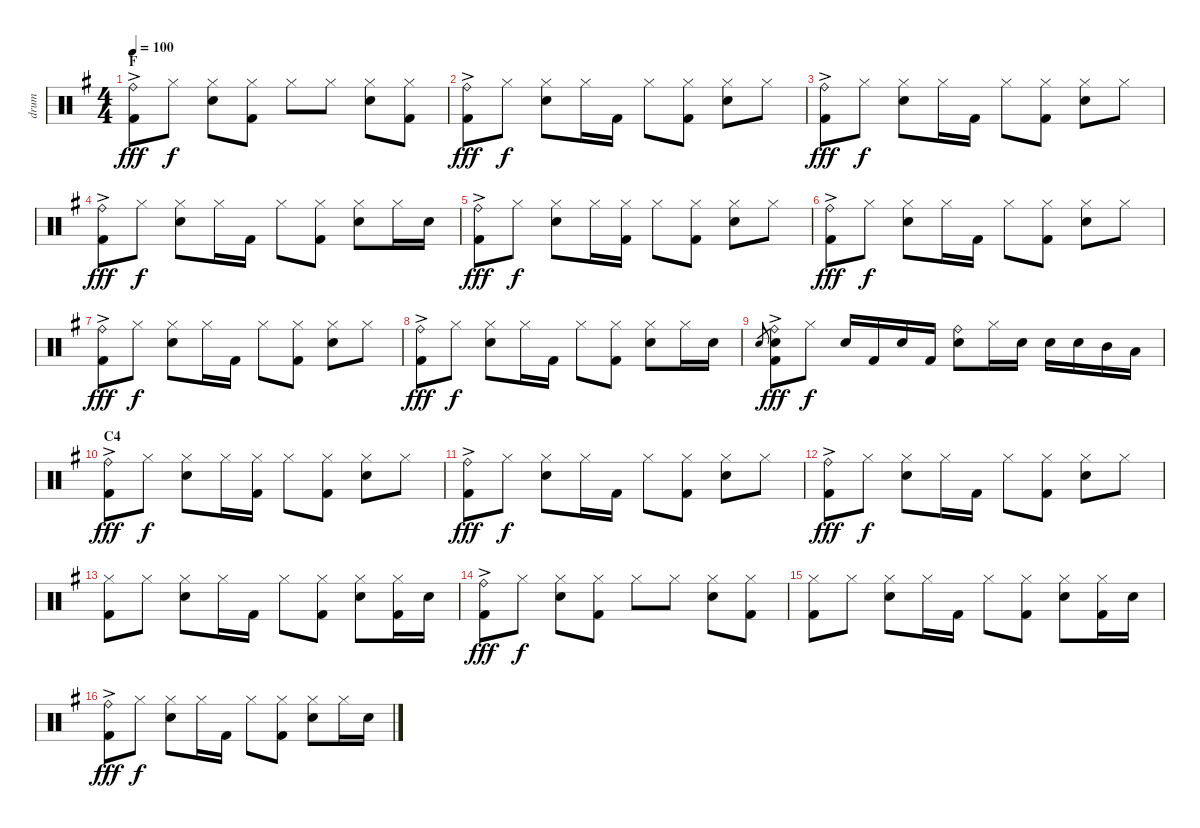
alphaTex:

\track ("drum" "drum") {instrument percussion}
\staff {score}
\articulation defaults
\ts (4 4)
\section ("" "F")
\tempo 100
\clef neutral
\ks g
("Ride (bell)"{ac} "Kick (hit) 2").8{dy fff} "Hi-Hat (closed)".8{dy f} ("Hi-Hat (closed)" "Snare (hit) 2").8 ("Hi-Hat (closed)" "Kick (hit) 2").8 "Hi-Hat (closed)".8 "Hi-Hat (closed)".8 ("Hi-Hat (closed)" "Snare (hit) 2").8 ("Hi-Hat (closed)" "Kick (hit) 2").8 |
("Ride (bell)"{ac} "Kick (hit) 2").8{dy fff} "Hi-Hat (closed)".8{dy f} ("Hi-Hat (closed)" "Snare (hit) 2").8 "Hi-Hat (closed)".16 "Kick (hit) 2".16 "Hi-Hat (closed)".8 ("Hi-Hat (closed)" "Kick (hit) 2").8 ("Hi-Hat (closed)" "Snare (hit) 2").8 "Hi-Hat (closed)".8 |
("Ride (bell)"{ac} "Kick (hit) 2").8{dy fff} "Hi-Hat (closed)".8{dy f} ("Hi-Hat (closed)" "Snare (hit) 2").8 "Hi-Hat (closed)".16 "Kick (hit) 2".16 "Hi-Hat (closed)".8 ("Hi-Hat (closed)" "Kick (hit) 2").8 ("Hi-Hat (closed)" "Snare (hit) 2").8 "Hi-Hat (closed)".8 |
("Ride (bell)"{ac} "Kick (hit) 2").8{dy fff} "Hi-Hat (closed)".8{dy f} ("Hi-Hat (closed)" "Snare (hit) 2").8 "Hi-Hat (closed)".16 "Kick (hit) 2".16 "Hi-Hat (closed)".8 ("Hi-Hat (closed)" "Kick (hit) 2").8 ("Hi-Hat (closed)" "Snare (hit) 2").8 "Hi-Hat (closed)".16 "Snare (hit) 2".16 |
("Ride (bell)"{ac} "Kick (hit) 2").8{dy fff} "Hi-Hat (closed)".8{dy f} ("Hi-Hat (closed)" "Snare (hit) 2").8 "Hi-Hat (closed)".16 ("Hi-Hat (closed)" "Kick (hit) 2").16 "Hi-Hat (closed)".8 ("Hi-Hat (closed)" "Kick (hit) 2").8 ("Hi-Hat (closed)" "Snare (hit) 2").8 "Hi-Hat (closed)".8 |
("Ride (bell)"{ac} "Kick (hit) 2").8{dy fff} "Hi-Hat (closed)".8{dy f} ("Hi-Hat (closed)" "Snare (hit) 2").8 "Hi-Hat (closed)".16 "Kick (hit) 2".16 "Hi-Hat (closed)".8 ("Hi-Hat (closed)" "Kick (hit) 2").8 ("Hi-Hat (closed)" "Snare (hit) 2").8 "Hi-Hat (closed)".8 |
("Ride (bell)"{ac} "Kick (hit) 2").8{dy fff} "Hi-Hat (closed)".8{dy f} ("Hi-Hat (closed)" "Snare (hit) 2").8 "Hi-Hat (closed)".16 "Kick (hit) 2".16 "Hi-Hat (closed)".8 ("Hi-Hat (closed)" "Kick (hit) 2").8 ("Hi-Hat (closed)" "Snare (hit) 2").8 "Hi-Hat (closed)".8 |
("Ride (bell)"{ac} "Kick (hit) 2").8{dy fff} "Hi-Hat (closed)".8{dy f} ("Hi-Hat (closed)" "Snare (hit) 2").8 "Hi-Hat (closed)".16 "Kick (hit) 2".16 "Hi-Hat (closed)".8 ("Hi-Hat (closed)" "Kick (hit) 2").8 ("Hi-Hat (closed)" "Snare (hit) 2").8 "Hi-Hat (closed)".16 "Snare (hit) 2".16 |
"Snare (hit) 2".8{gr} ("Ride (bell)"{ac} "Snare (hit) 2" "Kick (hit) 2").8{dy fff} "Hi-Hat (closed)".8{dy f} "Snare (hit) 2".16 "Kick (hit) 2".16 "Snare (hit) 2".16 "Kick (hit) 2".16 ("Ride (bell)" "Snare (hit) 2").8 "Hi-Hat (closed)".16 "Snare (hit) 2".16 "Snare (hit) 2".16 "Snare (hit) 2".16 "Mid Tom (hit)".16 "Low Tom (hit)".16 |
\section ("" "C4")
("Ride (bell)"{ac} "Kick (hit) 2").8{dy fff} "Hi-Hat (closed)".8{dy f} ("Hi-Hat (closed)" "Snare (hit) 2").8 "Hi-Hat (closed)".16 ("Hi-Hat (closed)" "Kick (hit) 2").16 "Hi-Hat (closed)".8 ("Hi-Hat (closed)" "Kick (hit) 2").8 ("Hi-Hat (closed)" "Snare (hit) 2").8 "Hi-Hat (closed)".8 |
("Ride (bell)"{ac} "Kick (hit) 2").8{dy fff} "Hi-Hat (closed)".8{dy f} ("Hi-Hat (closed)" "Snare (hit) 2").8 "Hi-Hat (closed)".16 "Kick (hit) 2".16 "Hi-Hat (closed)".8 ("Hi-Hat (closed)" "Kick (hit) 2").8 ("Hi-Hat (closed)" "Snare (hit) 2").8 "Hi-Hat (closed)".8 |
("Ride (bell)"{ac} "Kick (hit) 2").8{dy fff} "Hi-Hat (closed)".8{dy f} ("Hi-Hat (closed)" "Snare (hit) 2").8 "Hi-Hat (closed)".16 "Kick (hit) 2".16 "Hi-Hat (closed)".8 ("Hi-Hat (closed)" "Kick (hit) 2").8 ("Hi-Hat (closed)" "Snare (hit) 2").8 "Hi-Hat (closed)".8 |
("Hi-Hat (closed)" "Kick (hit) 2").8 "Hi-Hat (closed)".8 ("Hi-Hat (closed)" "Snare (hit) 2").8 "Hi-Hat (closed)".16 "Kick (hit) 2".16 "Hi-Hat (closed)".8 ("Hi-Hat (closed)" "Kick (hit) 2").8 ("Hi-Hat (closed)" "Snare (hit) 2").8 ("Hi-Hat (closed)" "Kick (hit) 2").16 "Snare (hit) 2".16 |
("Ride (bell)"{ac} "Kick (hit) 2").8{dy fff} "Hi-Hat (closed)".8{dy f} ("Hi-Hat (closed)" "Snare (hit) 2").8 ("Hi-Hat (closed)" "Kick (hit) 2").8 "Hi-Hat (closed)".8 "Hi-Hat (closed)".8 ("Hi-Hat (closed)" "Snare (hit) 2").8 ("Hi-Hat (closed)" "Kick (hit) 2").8 |
("Hi-Hat (closed)" "Kick (hit) 2").8 "Hi-Hat (closed)".8 ("Hi-Hat (closed)" "Snare (hit) 2").8 "Hi-Hat (closed)".16 "Kick (hit) 2".16 "Hi-Hat (closed)".8 ("Hi-Hat (closed)" "Kick (hit) 2").8 ("Hi-Hat (closed)" "Snare (hit) 2").8 ("Hi-Hat (closed)" "Kick (hit) 2").16 "Snare (hit) 2".16 |
("Ride (bell)"{ac} "Kick (hit) 2").8{dy fff} "Hi-Hat (closed)".8{dy f} ("Hi-Hat (closed)" "Snare (hit) 2").8 "Hi-Hat (closed)".16 "Kick (hit) 2".16 "Hi-Hat (closed)".8 ("Hi-Hat (closed)" "Kick (hit) 2").8 ("Hi-Hat (closed)" "Snare (hit) 2").8 "Hi-Hat (closed)".16 "Snare (hit) 2".16
